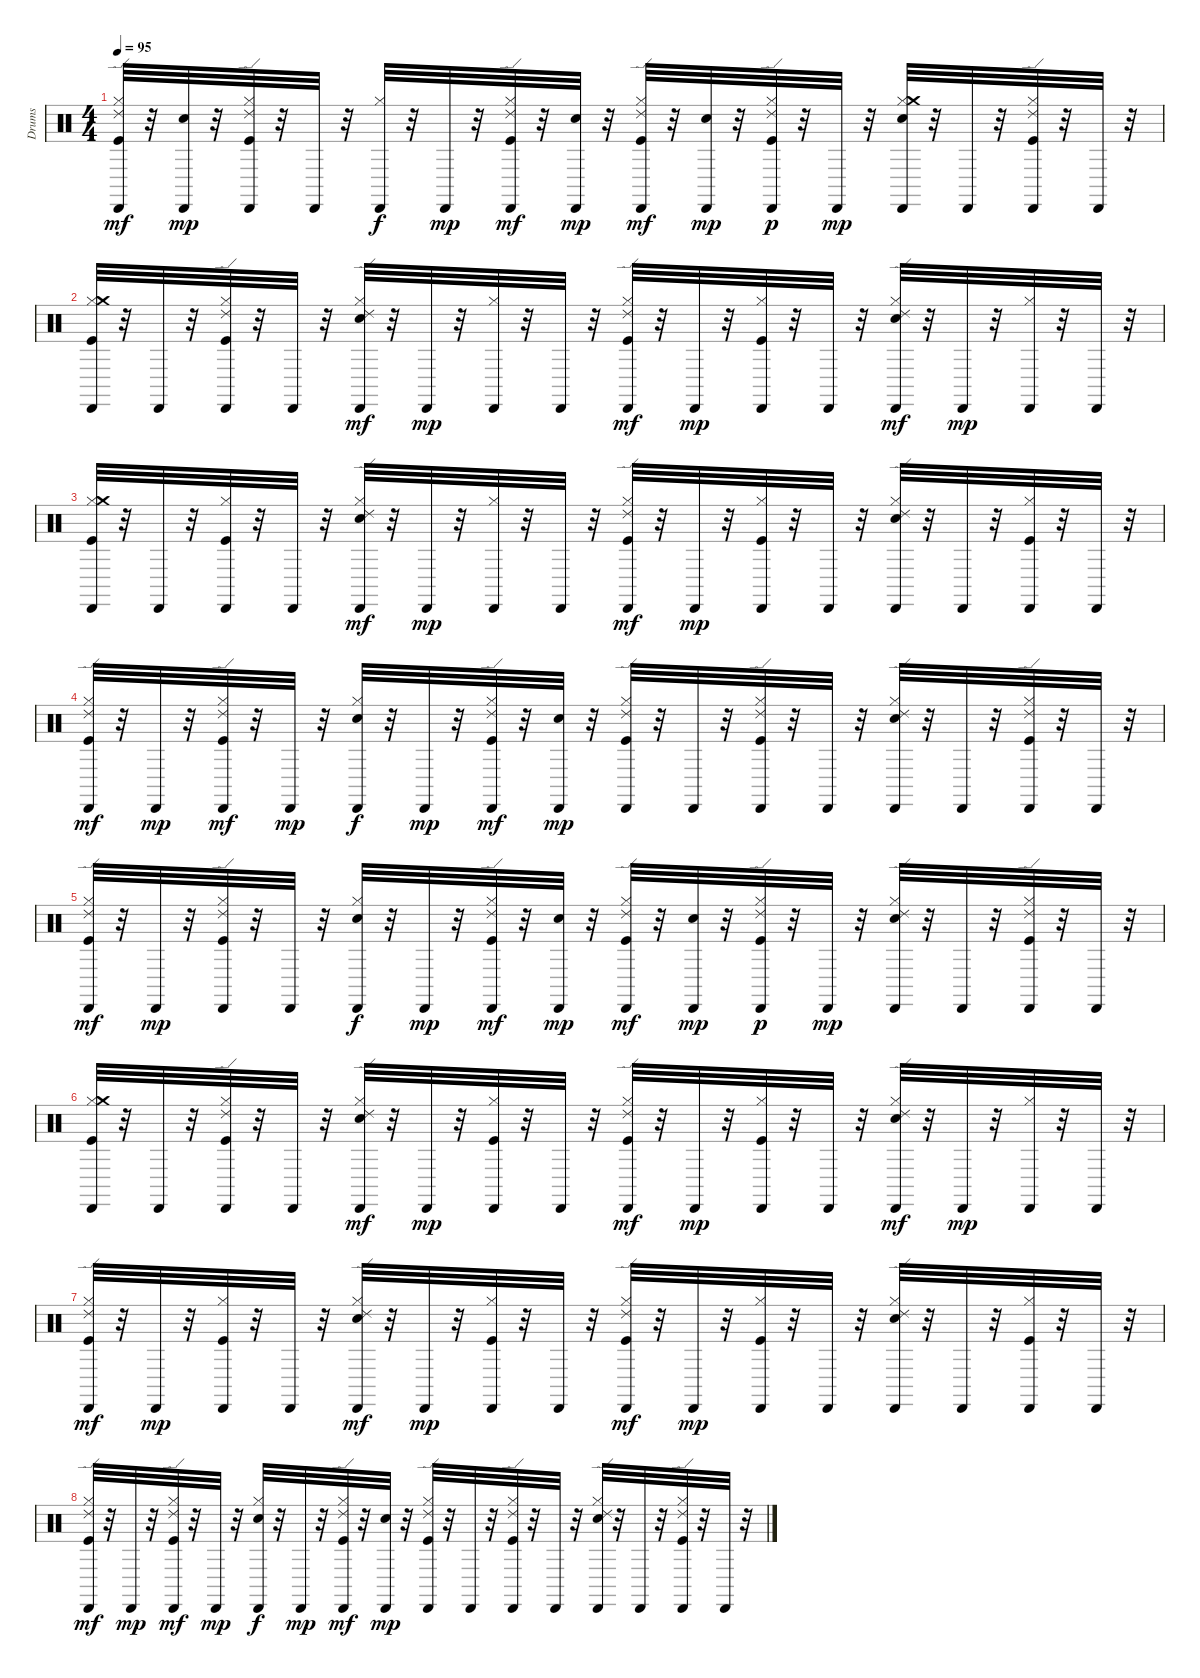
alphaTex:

\track ("Drums" "Drums") {instrument percussion}
\staff {score}
\articulation defaults
\ts (4 4)
\tempo 95
\clef neutral
\ks c
("Hi-Hat (closed)" "Kick (hit)" "Cabasa (hit)" "Ride (edge) 2").32{dy mf} r.32 ("Electric Snare (hit)" "Cabasa (hit)").32{dy mp} r.32 ("Hi-Hat (closed)" "Kick (hit)" "Cabasa (hit)" "Ride (edge) 2").32 r.32 "Cabasa (hit)".32 r.32 ("Hi-Hat (closed)" "Cabasa (hit)").32{dy f} r.32 "Cabasa (hit)".32{dy mp} r.32 ("Hi-Hat (closed)" "Kick (hit)" "Cabasa (hit)" "Ride (edge) 2").32{dy mf} r.32 ("Electric Snare (hit)" "Cabasa (hit)").32{dy mp} r.32 ("Hi-Hat (closed)" "Kick (hit)" "Cabasa (hit)" "Ride (edge) 2").32{dy mf} r.32 ("Electric Snare (hit)" "Cabasa (hit)").32{dy mp} r.32 ("Hi-Hat (closed)" "Kick (hit)" "Cabasa (hit)" "Ride (edge) 2").32{dy p} r.32 "Cabasa (hit)".32{dy mp} r.32 ("Hi-Hat (closed)" "Electric Snare (hit)" "Crash medium (hit)" "Cabasa (hit)").32 r.32 "Cabasa (hit)".32 r.32 ("Hi-Hat (closed)" "Kick (hit)" "Cabasa (hit)" "Ride (edge) 2").32 r.32 "Cabasa (hit)".32 r.32 |
("Kick (hit)" "Hi-Hat (closed)" "Crash medium (hit)" "Cabasa (hit)").32 r.32 "Cabasa (hit)".32 r.32 ("Hi-Hat (closed)" "Kick (hit)" "Cabasa (hit)" "Ride (edge) 2").32 r.32 "Cabasa (hit)".32 r.32 ("Hi-Hat (closed)" "Electric Snare (hit)" "Cabasa (hit)" "Ride (edge) 2").32{dy mf} r.32 "Cabasa (hit)".32{dy mp} r.32 ("Hi-Hat (closed)" "Cabasa (hit)").32 r.32 "Cabasa (hit)".32 r.32 ("Hi-Hat (closed)" "Kick (hit)" "Cabasa (hit)" "Ride (edge) 2").32{dy mf} r.32 "Cabasa (hit)".32{dy mp} r.32 ("Hi-Hat (closed)" "Kick (hit)" "Cabasa (hit)").32 r.32 "Cabasa (hit)".32 r.32 ("Hi-Hat (closed)" "Electric Snare (hit)" "Cabasa (hit)" "Ride (edge) 2").32{dy mf} r.32 "Cabasa (hit)".32{dy mp} r.32 ("Hi-Hat (closed)" "Cabasa (hit)").32 r.32 "Cabasa (hit)".32 r.32 |
("Hi-Hat (closed)" "Kick (hit)" "Crash medium (hit)" "Cabasa (hit)").32 r.32 "Cabasa (hit)".32 r.32 ("Hi-Hat (closed)" "Kick (hit)" "Cabasa (hit)").32 r.32 "Cabasa (hit)".32 r.32 ("Hi-Hat (closed)" "Electric Snare (hit)" "Cabasa (hit)" "Ride (edge) 2").32{dy mf} r.32 "Cabasa (hit)".32{dy mp} r.32 ("Hi-Hat (closed)" "Cabasa (hit)").32 r.32 "Cabasa (hit)".32 r.32 ("Hi-Hat (closed)" "Kick (hit)" "Cabasa (hit)" "Ride (edge) 2").32{dy mf} r.32 "Cabasa (hit)".32{dy mp} r.32 ("Hi-Hat (closed)" "Kick (hit)" "Cabasa (hit)").32 r.32 "Cabasa (hit)".32 r.32 ("Hi-Hat (closed)" "Electric Snare (hit)" "Cabasa (hit)" "Ride (edge) 2").32 r.32 "Cabasa (hit)".32 r.32 ("Hi-Hat (closed)" "Kick (hit)" "Cabasa (hit)").32 r.32 "Cabasa (hit)".32 r.32 |
("Kick (hit)" "Hi-Hat (closed)" "Cabasa (hit)" "Ride (edge) 2").32{dy mf} r.32 "Cabasa (hit)".32{dy mp} r.32 ("Hi-Hat (closed)" "Kick (hit)" "Cabasa (hit)" "Ride (edge) 2").32{dy mf} r.32 "Cabasa (hit)".32{dy mp} r.32 ("Hi-Hat (closed)" "Electric Snare (hit)" "Cabasa (hit)").32{dy f} r.32 "Cabasa (hit)".32{dy mp} r.32 ("Hi-Hat (closed)" "Kick (hit)" "Cabasa (hit)" "Ride (edge) 2").32{dy mf} r.32 ("Electric Snare (hit)" "Cabasa (hit)").32{dy mp} r.32 ("Hi-Hat (closed)" "Kick (hit)" "Cabasa (hit)" "Ride (edge) 2").32 r.32 "Cabasa (hit)".32 r.32 ("Hi-Hat (closed)" "Kick (hit)" "Cabasa (hit)" "Ride (edge) 2").32 r.32 "Cabasa (hit)".32 r.32 ("Hi-Hat (closed)" "Electric Snare (hit)" "Cabasa (hit)" "Ride (edge) 2").32 r.32 "Cabasa (hit)".32 r.32 ("Hi-Hat (closed)" "Cabasa (hit)" "Kick (hit)" "Ride (edge) 2").32 r.32 "Cabasa (hit)".32 r.32 |
("Hi-Hat (closed)" "Kick (hit)" "Cabasa (hit)" "Ride (edge) 2").32{dy mf} r.32 "Cabasa (hit)".32{dy mp} r.32 ("Hi-Hat (closed)" "Kick (hit)" "Cabasa (hit)" "Ride (edge) 2").32 r.32 "Cabasa (hit)".32 r.32 ("Hi-Hat (closed)" "Electric Snare (hit)" "Cabasa (hit)").32{dy f} r.32 "Cabasa (hit)".32{dy mp} r.32 ("Hi-Hat (closed)" "Kick (hit)" "Cabasa (hit)" "Ride (edge) 2").32{dy mf} r.32 ("Electric Snare (hit)" "Cabasa (hit)").32{dy mp} r.32 ("Hi-Hat (closed)" "Kick (hit)" "Cabasa (hit)" "Ride (edge) 2").32{dy mf} r.32 ("Electric Snare (hit)" "Cabasa (hit)").32{dy mp} r.32 ("Hi-Hat (closed)" "Kick (hit)" "Cabasa (hit)" "Ride (edge) 2").32{dy p} r.32 "Cabasa (hit)".32{dy mp} r.32 ("Hi-Hat (closed)" "Electric Snare (hit)" "Ride (edge) 2" "Cabasa (hit)").32 r.32 "Cabasa (hit)".32 r.32 ("Hi-Hat (closed)" "Kick (hit)" "Cabasa (hit)" "Ride (edge) 2").32 r.32 "Cabasa (hit)".32 r.32 |
("Kick (hit)" "Hi-Hat (closed)" "Crash medium (hit)" "Cabasa (hit)").32 r.32 "Cabasa (hit)".32 r.32 ("Hi-Hat (closed)" "Kick (hit)" "Cabasa (hit)" "Ride (edge) 2").32 r.32 "Cabasa (hit)".32 r.32 ("Hi-Hat (closed)" "Electric Snare (hit)" "Cabasa (hit)" "Ride (edge) 2").32{dy mf} r.32 "Cabasa (hit)".32{dy mp} r.32 ("Hi-Hat (closed)" "Kick (hit)" "Cabasa (hit)").32 r.32 "Cabasa (hit)".32 r.32 ("Hi-Hat (closed)" "Kick (hit)" "Cabasa (hit)" "Ride (edge) 2").32{dy mf} r.32 "Cabasa (hit)".32{dy mp} r.32 ("Hi-Hat (closed)" "Kick (hit)" "Cabasa (hit)").32 r.32 "Cabasa (hit)".32 r.32 ("Hi-Hat (closed)" "Electric Snare (hit)" "Cabasa (hit)" "Ride (edge) 2").32{dy mf} r.32 "Cabasa (hit)".32{dy mp} r.32 ("Hi-Hat (closed)" "Cabasa (hit)").32 r.32 "Cabasa (hit)".32 r.32 |
("Hi-Hat (closed)" "Kick (hit)" "Cabasa (hit)" "Ride (edge) 2").32{dy mf} r.32 "Cabasa (hit)".32{dy mp} r.32 ("Hi-Hat (closed)" "Kick (hit)" "Cabasa (hit)").32 r.32 "Cabasa (hit)".32 r.32 ("Hi-Hat (closed)" "Electric Snare (hit)" "Cabasa (hit)" "Ride (edge) 2").32{dy mf} r.32 "Cabasa (hit)".32{dy mp} r.32 ("Hi-Hat (closed)" "Kick (hit)" "Cabasa (hit)").32 r.32 "Cabasa (hit)".32 r.32 ("Hi-Hat (closed)" "Kick (hit)" "Cabasa (hit)" "Ride (edge) 2").32{dy mf} r.32 "Cabasa (hit)".32{dy mp} r.32 ("Hi-Hat (closed)" "Kick (hit)" "Cabasa (hit)").32 r.32 "Cabasa (hit)".32 r.32 ("Hi-Hat (closed)" "Electric Snare (hit)" "Cabasa (hit)" "Ride (edge) 2").32 r.32 "Cabasa (hit)".32 r.32 ("Hi-Hat (closed)" "Kick (hit)" "Cabasa (hit)").32 r.32 "Cabasa (hit)".32 r.32 |
("Kick (hit)" "Hi-Hat (closed)" "Cabasa (hit)" "Ride (edge) 2").32{dy mf} r.32 "Cabasa (hit)".32{dy mp} r.32 ("Hi-Hat (closed)" "Kick (hit)" "Cabasa (hit)" "Ride (edge) 2").32{dy mf} r.32 "Cabasa (hit)".32{dy mp} r.32 ("Hi-Hat (closed)" "Electric Snare (hit)" "Cabasa (hit)").32{dy f} r.32 "Cabasa (hit)".32{dy mp} r.32 ("Hi-Hat (closed)" "Kick (hit)" "Cabasa (hit)" "Ride (edge) 2").32{dy mf} r.32 ("Electric Snare (hit)" "Cabasa (hit)").32{dy mp} r.32 ("Hi-Hat (closed)" "Kick (hit)" "Cabasa (hit)" "Ride (edge) 2").32 r.32 "Cabasa (hit)".32 r.32 ("Hi-Hat (closed)" "Kick (hit)" "Cabasa (hit)" "Ride (edge) 2").32 r.32 "Cabasa (hit)".32 r.32 ("Hi-Hat (closed)" "Electric Snare (hit)" "Cabasa (hit)" "Ride (edge) 2").32 r.32 "Cabasa (hit)".32 r.32 ("Hi-Hat (closed)" "Cabasa (hit)" "Kick (hit)" "Ride (edge) 2").32 r.32 "Cabasa (hit)".32 r.32
